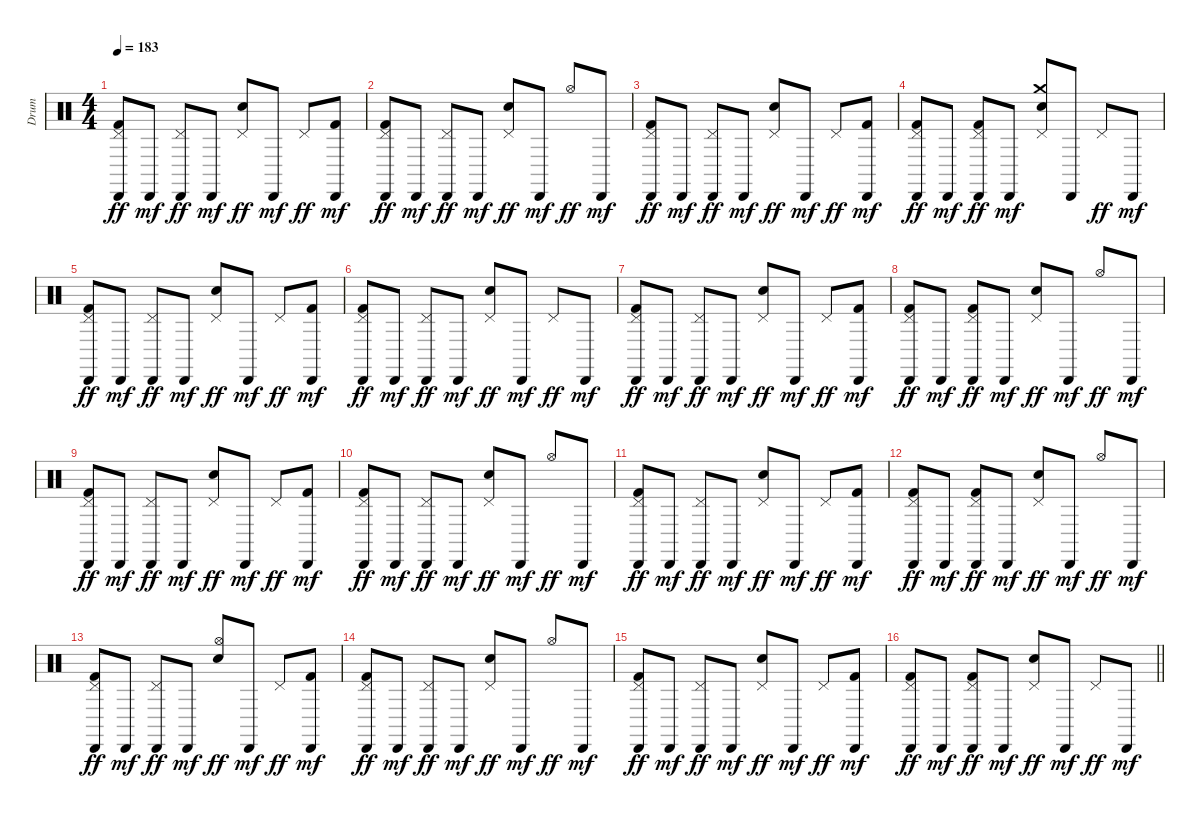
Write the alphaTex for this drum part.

\track ("Drum" "Drum") {instrument percussion}
\staff {score}
\articulation defaults
\ts (4 4)
\tempo 183
\clef neutral
\ks c
("Cabasa (hit)" "Kick (hit) 2" "Pedal Hi-Hat (hit)").8{dy ff} "Cabasa (hit)".8{dy mf} ("Cabasa (hit)" "Pedal Hi-Hat (hit)").8{dy ff} "Cabasa (hit)".8{dy mf} ("Electric Snare (hit)" "Pedal Hi-Hat (hit)").8{dy ff} "Cabasa (hit)".8{dy mf} "Pedal Hi-Hat (hit)".8{dy ff} ("Cabasa (hit)" "Kick (hit) 2").8{dy mf} |
("Cabasa (hit)" "Kick (hit) 2" "Pedal Hi-Hat (hit)").8{dy ff} "Cabasa (hit)".8{dy mf} ("Cabasa (hit)" "Pedal Hi-Hat (hit)").8{dy ff} "Cabasa (hit)".8{dy mf} ("Electric Snare (hit)" "Pedal Hi-Hat (hit)").8{dy ff} "Cabasa (hit)".8{dy mf} "Hi-Hat (open)".8{dy ff} "Cabasa (hit)".8{dy mf} |
("Cabasa (hit)" "Kick (hit) 2" "Pedal Hi-Hat (hit)").8{dy ff} "Cabasa (hit)".8{dy mf} ("Cabasa (hit)" "Pedal Hi-Hat (hit)").8{dy ff} "Cabasa (hit)".8{dy mf} ("Electric Snare (hit)" "Pedal Hi-Hat (hit)").8{dy ff} "Cabasa (hit)".8{dy mf} "Pedal Hi-Hat (hit)".8{dy ff} ("Cabasa (hit)" "Kick (hit) 2").8{dy mf} |
("Cabasa (hit)" "Kick (hit) 2" "Pedal Hi-Hat (hit)").8{dy ff} "Cabasa (hit)".8{dy mf} ("Cabasa (hit)" "Kick (hit) 2" "Pedal Hi-Hat (hit)").8{dy ff} "Cabasa (hit)".8{dy mf} ("Electric Snare (hit)" "Pedal Hi-Hat (hit)" "Crash medium (hit)").8 "Cabasa (hit)".8 "Pedal Hi-Hat (hit)".8{dy ff} "Cabasa (hit)".8{dy mf} |
("Cabasa (hit)" "Kick (hit) 2" "Pedal Hi-Hat (hit)").8{dy ff} "Cabasa (hit)".8{dy mf} ("Cabasa (hit)" "Pedal Hi-Hat (hit)").8{dy ff} "Cabasa (hit)".8{dy mf} ("Electric Snare (hit)" "Pedal Hi-Hat (hit)").8{dy ff} "Cabasa (hit)".8{dy mf} "Pedal Hi-Hat (hit)".8{dy ff} ("Cabasa (hit)" "Kick (hit) 2").8{dy mf} |
("Cabasa (hit)" "Kick (hit) 2" "Pedal Hi-Hat (hit)").8{dy ff} "Cabasa (hit)".8{dy mf} ("Cabasa (hit)" "Pedal Hi-Hat (hit)").8{dy ff} "Cabasa (hit)".8{dy mf} ("Electric Snare (hit)" "Pedal Hi-Hat (hit)").8{dy ff} "Cabasa (hit)".8{dy mf} "Pedal Hi-Hat (hit)".8{dy ff} "Cabasa (hit)".8{dy mf} |
("Cabasa (hit)" "Kick (hit) 2" "Pedal Hi-Hat (hit)").8{dy ff} "Cabasa (hit)".8{dy mf} ("Cabasa (hit)" "Pedal Hi-Hat (hit)").8{dy ff} "Cabasa (hit)".8{dy mf} ("Electric Snare (hit)" "Pedal Hi-Hat (hit)").8{dy ff} "Cabasa (hit)".8{dy mf} "Pedal Hi-Hat (hit)".8{dy ff} ("Cabasa (hit)" "Kick (hit) 2").8{dy mf} |
("Cabasa (hit)" "Kick (hit) 2" "Pedal Hi-Hat (hit)").8{dy ff} "Cabasa (hit)".8{dy mf} ("Cabasa (hit)" "Kick (hit) 2" "Pedal Hi-Hat (hit)").8{dy ff} "Cabasa (hit)".8{dy mf} ("Electric Snare (hit)" "Pedal Hi-Hat (hit)").8{dy ff} "Cabasa (hit)".8{dy mf} "Hi-Hat (open)".8{dy ff} "Cabasa (hit)".8{dy mf} |
("Cabasa (hit)" "Kick (hit) 2" "Pedal Hi-Hat (hit)").8{dy ff} "Cabasa (hit)".8{dy mf} ("Cabasa (hit)" "Pedal Hi-Hat (hit)").8{dy ff} "Cabasa (hit)".8{dy mf} ("Electric Snare (hit)" "Pedal Hi-Hat (hit)").8{dy ff} "Cabasa (hit)".8{dy mf} "Pedal Hi-Hat (hit)".8{dy ff} ("Cabasa (hit)" "Kick (hit) 2").8{dy mf} |
("Cabasa (hit)" "Kick (hit) 2" "Pedal Hi-Hat (hit)").8{dy ff} "Cabasa (hit)".8{dy mf} ("Cabasa (hit)" "Pedal Hi-Hat (hit)").8{dy ff} "Cabasa (hit)".8{dy mf} ("Electric Snare (hit)" "Pedal Hi-Hat (hit)").8{dy ff} "Cabasa (hit)".8{dy mf} "Hi-Hat (open)".8{dy ff} "Cabasa (hit)".8{dy mf} |
("Cabasa (hit)" "Kick (hit) 2" "Pedal Hi-Hat (hit)").8{dy ff} "Cabasa (hit)".8{dy mf} ("Cabasa (hit)" "Pedal Hi-Hat (hit)").8{dy ff} "Cabasa (hit)".8{dy mf} ("Electric Snare (hit)" "Pedal Hi-Hat (hit)").8{dy ff} "Cabasa (hit)".8{dy mf} "Pedal Hi-Hat (hit)".8{dy ff} ("Cabasa (hit)" "Kick (hit) 2").8{dy mf} |
("Cabasa (hit)" "Kick (hit) 2" "Pedal Hi-Hat (hit)").8{dy ff} "Cabasa (hit)".8{dy mf} ("Cabasa (hit)" "Kick (hit) 2" "Pedal Hi-Hat (hit)").8{dy ff} "Cabasa (hit)".8{dy mf} ("Electric Snare (hit)" "Pedal Hi-Hat (hit)").8{dy ff} "Cabasa (hit)".8{dy mf} "Hi-Hat (open)".8{dy ff} "Cabasa (hit)".8{dy mf} |
("Cabasa (hit)" "Kick (hit) 2" "Pedal Hi-Hat (hit)").8{dy ff} "Cabasa (hit)".8{dy mf} ("Cabasa (hit)" "Pedal Hi-Hat (hit)").8{dy ff} "Cabasa (hit)".8{dy mf} ("Electric Snare (hit)" "Hi-Hat (open)").8{dy ff} "Cabasa (hit)".8{dy mf} "Pedal Hi-Hat (hit)".8{dy ff} ("Cabasa (hit)" "Kick (hit) 2").8{dy mf} |
("Cabasa (hit)" "Kick (hit) 2" "Pedal Hi-Hat (hit)").8{dy ff} "Cabasa (hit)".8{dy mf} ("Cabasa (hit)" "Pedal Hi-Hat (hit)").8{dy ff} "Cabasa (hit)".8{dy mf} ("Electric Snare (hit)" "Pedal Hi-Hat (hit)").8{dy ff} "Cabasa (hit)".8{dy mf} "Hi-Hat (open)".8{dy ff} "Cabasa (hit)".8{dy mf} |
("Cabasa (hit)" "Kick (hit) 2" "Pedal Hi-Hat (hit)").8{dy ff} "Cabasa (hit)".8{dy mf} ("Cabasa (hit)" "Pedal Hi-Hat (hit)").8{dy ff} "Cabasa (hit)".8{dy mf} ("Electric Snare (hit)" "Pedal Hi-Hat (hit)").8{dy ff} "Cabasa (hit)".8{dy mf} "Pedal Hi-Hat (hit)".8{dy ff} ("Cabasa (hit)" "Kick (hit) 2").8{dy mf} |
\barLineRight lightlight
("Cabasa (hit)" "Kick (hit) 2" "Pedal Hi-Hat (hit)").8{dy ff} "Cabasa (hit)".8{dy mf} ("Cabasa (hit)" "Kick (hit) 2" "Pedal Hi-Hat (hit)").8{dy ff} "Cabasa (hit)".8{dy mf} ("Electric Snare (hit)" "Pedal Hi-Hat (hit)").8{dy ff} "Cabasa (hit)".8{dy mf} "Pedal Hi-Hat (hit)".8{dy ff} "Cabasa (hit)".8{dy mf}
